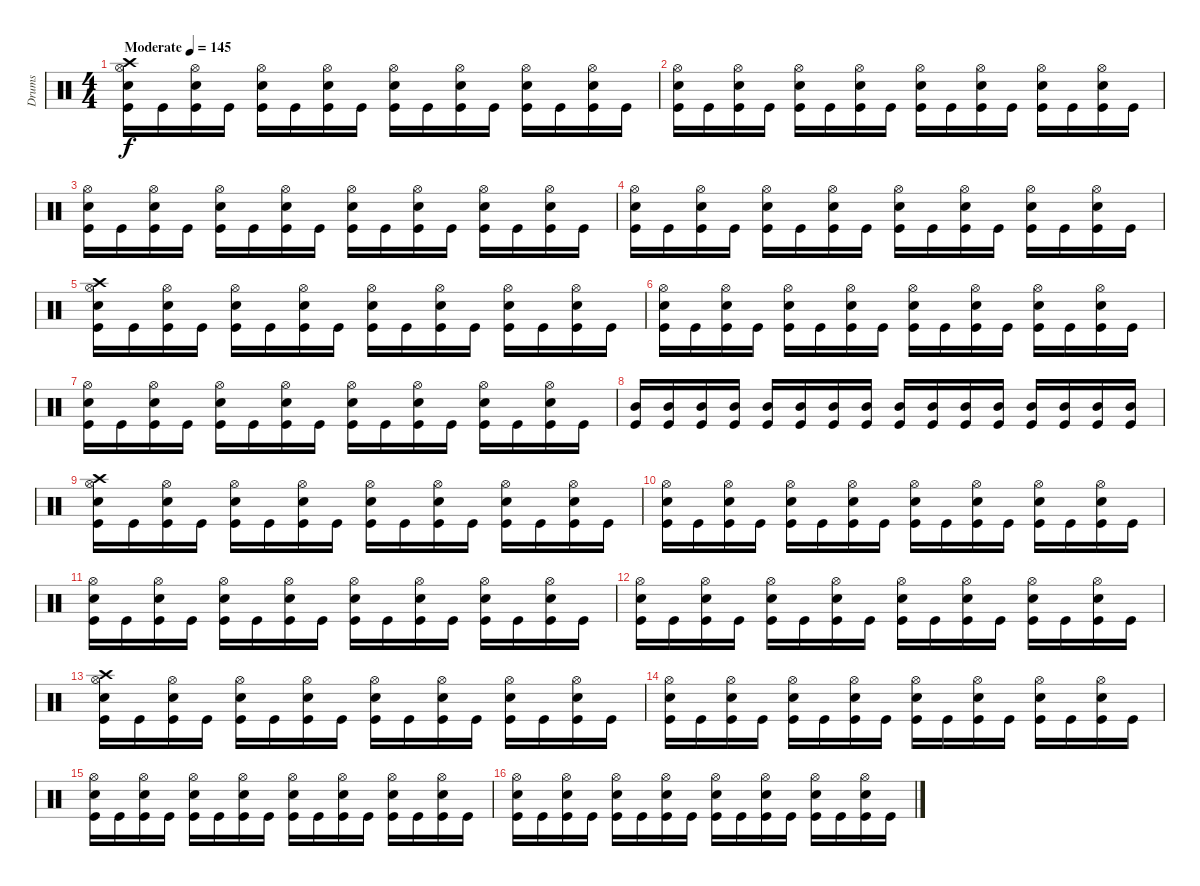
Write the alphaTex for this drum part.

\track ("Drums" "Drums") {instrument percussion}
\staff {score}
\articulation defaults
\ts (4 4)
\tempo (145 "Moderate")
\clef neutral
\ks c
("Crash high (hit)" "Hi-Hat (open)" "Electric Snare (hit)" "Kick (hit)").16{dy f} "Kick (hit)".16 ("Hi-Hat (open)" "Electric Snare (hit)" "Kick (hit)").16 "Kick (hit)".16 ("Hi-Hat (open)" "Electric Snare (hit)" "Kick (hit)").16 "Kick (hit)".16 ("Hi-Hat (open)" "Electric Snare (hit)" "Kick (hit)").16 "Kick (hit)".16 ("Hi-Hat (open)" "Electric Snare (hit)" "Kick (hit)").16 "Kick (hit)".16 ("Hi-Hat (open)" "Electric Snare (hit)" "Kick (hit)").16 "Kick (hit)".16 ("Hi-Hat (open)" "Electric Snare (hit)" "Kick (hit)").16 "Kick (hit)".16 ("Hi-Hat (open)" "Electric Snare (hit)" "Kick (hit)").16 "Kick (hit)".16 |
("Hi-Hat (open)" "Electric Snare (hit)" "Kick (hit)").16 "Kick (hit)".16 ("Hi-Hat (open)" "Electric Snare (hit)" "Kick (hit)").16 "Kick (hit)".16 ("Hi-Hat (open)" "Electric Snare (hit)" "Kick (hit)").16 "Kick (hit)".16 ("Hi-Hat (open)" "Electric Snare (hit)" "Kick (hit)").16 "Kick (hit)".16 ("Hi-Hat (open)" "Electric Snare (hit)" "Kick (hit)").16 "Kick (hit)".16 ("Hi-Hat (open)" "Electric Snare (hit)" "Kick (hit)").16 "Kick (hit)".16 ("Hi-Hat (open)" "Electric Snare (hit)" "Kick (hit)").16 "Kick (hit)".16 ("Hi-Hat (open)" "Electric Snare (hit)" "Kick (hit)").16 "Kick (hit)".16 |
("Hi-Hat (open)" "Electric Snare (hit)" "Kick (hit)").16 "Kick (hit)".16 ("Hi-Hat (open)" "Electric Snare (hit)" "Kick (hit)").16 "Kick (hit)".16 ("Hi-Hat (open)" "Electric Snare (hit)" "Kick (hit)").16 "Kick (hit)".16 ("Hi-Hat (open)" "Electric Snare (hit)" "Kick (hit)").16 "Kick (hit)".16 ("Hi-Hat (open)" "Electric Snare (hit)" "Kick (hit)").16 "Kick (hit)".16 ("Hi-Hat (open)" "Electric Snare (hit)" "Kick (hit)").16 "Kick (hit)".16 ("Hi-Hat (open)" "Electric Snare (hit)" "Kick (hit)").16 "Kick (hit)".16 ("Hi-Hat (open)" "Electric Snare (hit)" "Kick (hit)").16 "Kick (hit)".16 |
("Hi-Hat (open)" "Electric Snare (hit)" "Kick (hit)").16 "Kick (hit)".16 ("Hi-Hat (open)" "Electric Snare (hit)" "Kick (hit)").16 "Kick (hit)".16 ("Hi-Hat (open)" "Electric Snare (hit)" "Kick (hit)").16 "Kick (hit)".16 ("Hi-Hat (open)" "Electric Snare (hit)" "Kick (hit)").16 "Kick (hit)".16 ("Hi-Hat (open)" "Electric Snare (hit)" "Kick (hit)").16 "Kick (hit)".16 ("Hi-Hat (open)" "Electric Snare (hit)" "Kick (hit)").16 "Kick (hit)".16 ("Hi-Hat (open)" "Electric Snare (hit)" "Kick (hit)").16 "Kick (hit)".16 ("Hi-Hat (open)" "Electric Snare (hit)" "Kick (hit)").16 "Kick (hit)".16 |
("Crash high (hit)" "Hi-Hat (open)" "Electric Snare (hit)" "Kick (hit)").16 "Kick (hit)".16 ("Hi-Hat (open)" "Electric Snare (hit)" "Kick (hit)").16 "Kick (hit)".16 ("Hi-Hat (open)" "Electric Snare (hit)" "Kick (hit)").16 "Kick (hit)".16 ("Hi-Hat (open)" "Electric Snare (hit)" "Kick (hit)").16 "Kick (hit)".16 ("Hi-Hat (open)" "Electric Snare (hit)" "Kick (hit)").16 "Kick (hit)".16 ("Hi-Hat (open)" "Electric Snare (hit)" "Kick (hit)").16 "Kick (hit)".16 ("Hi-Hat (open)" "Electric Snare (hit)" "Kick (hit)").16 "Kick (hit)".16 ("Hi-Hat (open)" "Electric Snare (hit)" "Kick (hit)").16 "Kick (hit)".16 |
("Hi-Hat (open)" "Electric Snare (hit)" "Kick (hit)").16 "Kick (hit)".16 ("Hi-Hat (open)" "Electric Snare (hit)" "Kick (hit)").16 "Kick (hit)".16 ("Hi-Hat (open)" "Electric Snare (hit)" "Kick (hit)").16 "Kick (hit)".16 ("Hi-Hat (open)" "Electric Snare (hit)" "Kick (hit)").16 "Kick (hit)".16 ("Hi-Hat (open)" "Electric Snare (hit)" "Kick (hit)").16 "Kick (hit)".16 ("Hi-Hat (open)" "Electric Snare (hit)" "Kick (hit)").16 "Kick (hit)".16 ("Hi-Hat (open)" "Electric Snare (hit)" "Kick (hit)").16 "Kick (hit)".16 ("Hi-Hat (open)" "Electric Snare (hit)" "Kick (hit)").16 "Kick (hit)".16 |
("Hi-Hat (open)" "Electric Snare (hit)" "Kick (hit)").16 "Kick (hit)".16 ("Hi-Hat (open)" "Electric Snare (hit)" "Kick (hit)").16 "Kick (hit)".16 ("Hi-Hat (open)" "Electric Snare (hit)" "Kick (hit)").16 "Kick (hit)".16 ("Hi-Hat (open)" "Electric Snare (hit)" "Kick (hit)").16 "Kick (hit)".16 ("Hi-Hat (open)" "Electric Snare (hit)" "Kick (hit)").16 "Kick (hit)".16 ("Hi-Hat (open)" "Electric Snare (hit)" "Kick (hit)").16 "Kick (hit)".16 ("Hi-Hat (open)" "Electric Snare (hit)" "Kick (hit)").16 "Kick (hit)".16 ("Hi-Hat (open)" "Electric Snare (hit)" "Kick (hit)").16 "Kick (hit)".16 |
("Mid Tom (hit)" "Kick (hit)").16 ("Mid Tom (hit)" "Kick (hit)").16 ("Mid Tom (hit)" "Kick (hit)").16 ("Mid Tom (hit)" "Kick (hit)").16 ("Mid Tom (hit)" "Kick (hit)").16 ("Mid Tom (hit)" "Kick (hit)").16 ("Mid Tom (hit)" "Kick (hit)").16 ("Mid Tom (hit)" "Kick (hit)").16 ("Mid Tom (hit)" "Kick (hit)").16 ("Mid Tom (hit)" "Kick (hit)").16 ("Mid Tom (hit)" "Kick (hit)").16 ("Mid Tom (hit)" "Kick (hit)").16 ("Mid Tom (hit)" "Kick (hit)").16 ("Mid Tom (hit)" "Kick (hit)").16 ("Mid Tom (hit)" "Kick (hit)").16 ("Mid Tom (hit)" "Kick (hit)").16 |
("Crash high (hit)" "Hi-Hat (open)" "Electric Snare (hit)" "Kick (hit)").16 "Kick (hit)".16 ("Hi-Hat (open)" "Electric Snare (hit)" "Kick (hit)").16 "Kick (hit)".16 ("Hi-Hat (open)" "Electric Snare (hit)" "Kick (hit)").16 "Kick (hit)".16 ("Hi-Hat (open)" "Electric Snare (hit)" "Kick (hit)").16 "Kick (hit)".16 ("Hi-Hat (open)" "Electric Snare (hit)" "Kick (hit)").16 "Kick (hit)".16 ("Hi-Hat (open)" "Electric Snare (hit)" "Kick (hit)").16 "Kick (hit)".16 ("Hi-Hat (open)" "Electric Snare (hit)" "Kick (hit)").16 "Kick (hit)".16 ("Hi-Hat (open)" "Electric Snare (hit)" "Kick (hit)").16 "Kick (hit)".16 |
("Hi-Hat (open)" "Electric Snare (hit)" "Kick (hit)").16 "Kick (hit)".16 ("Hi-Hat (open)" "Electric Snare (hit)" "Kick (hit)").16 "Kick (hit)".16 ("Hi-Hat (open)" "Electric Snare (hit)" "Kick (hit)").16 "Kick (hit)".16 ("Hi-Hat (open)" "Electric Snare (hit)" "Kick (hit)").16 "Kick (hit)".16 ("Hi-Hat (open)" "Electric Snare (hit)" "Kick (hit)").16 "Kick (hit)".16 ("Hi-Hat (open)" "Electric Snare (hit)" "Kick (hit)").16 "Kick (hit)".16 ("Hi-Hat (open)" "Electric Snare (hit)" "Kick (hit)").16 "Kick (hit)".16 ("Hi-Hat (open)" "Electric Snare (hit)" "Kick (hit)").16 "Kick (hit)".16 |
("Hi-Hat (open)" "Electric Snare (hit)" "Kick (hit)").16 "Kick (hit)".16 ("Hi-Hat (open)" "Electric Snare (hit)" "Kick (hit)").16 "Kick (hit)".16 ("Hi-Hat (open)" "Electric Snare (hit)" "Kick (hit)").16 "Kick (hit)".16 ("Hi-Hat (open)" "Electric Snare (hit)" "Kick (hit)").16 "Kick (hit)".16 ("Hi-Hat (open)" "Electric Snare (hit)" "Kick (hit)").16 "Kick (hit)".16 ("Hi-Hat (open)" "Electric Snare (hit)" "Kick (hit)").16 "Kick (hit)".16 ("Hi-Hat (open)" "Electric Snare (hit)" "Kick (hit)").16 "Kick (hit)".16 ("Hi-Hat (open)" "Electric Snare (hit)" "Kick (hit)").16 "Kick (hit)".16 |
("Hi-Hat (open)" "Electric Snare (hit)" "Kick (hit)").16 "Kick (hit)".16 ("Hi-Hat (open)" "Electric Snare (hit)" "Kick (hit)").16 "Kick (hit)".16 ("Hi-Hat (open)" "Electric Snare (hit)" "Kick (hit)").16 "Kick (hit)".16 ("Hi-Hat (open)" "Electric Snare (hit)" "Kick (hit)").16 "Kick (hit)".16 ("Hi-Hat (open)" "Electric Snare (hit)" "Kick (hit)").16 "Kick (hit)".16 ("Hi-Hat (open)" "Electric Snare (hit)" "Kick (hit)").16 "Kick (hit)".16 ("Hi-Hat (open)" "Electric Snare (hit)" "Kick (hit)").16 "Kick (hit)".16 ("Hi-Hat (open)" "Electric Snare (hit)" "Kick (hit)").16 "Kick (hit)".16 |
("Crash high (hit)" "Hi-Hat (open)" "Electric Snare (hit)" "Kick (hit)").16 "Kick (hit)".16 ("Hi-Hat (open)" "Electric Snare (hit)" "Kick (hit)").16 "Kick (hit)".16 ("Hi-Hat (open)" "Electric Snare (hit)" "Kick (hit)").16 "Kick (hit)".16 ("Hi-Hat (open)" "Electric Snare (hit)" "Kick (hit)").16 "Kick (hit)".16 ("Hi-Hat (open)" "Electric Snare (hit)" "Kick (hit)").16 "Kick (hit)".16 ("Hi-Hat (open)" "Electric Snare (hit)" "Kick (hit)").16 "Kick (hit)".16 ("Hi-Hat (open)" "Electric Snare (hit)" "Kick (hit)").16 "Kick (hit)".16 ("Hi-Hat (open)" "Electric Snare (hit)" "Kick (hit)").16 "Kick (hit)".16 |
("Hi-Hat (open)" "Electric Snare (hit)" "Kick (hit)").16 "Kick (hit)".16 ("Hi-Hat (open)" "Electric Snare (hit)" "Kick (hit)").16 "Kick (hit)".16 ("Hi-Hat (open)" "Electric Snare (hit)" "Kick (hit)").16 "Kick (hit)".16 ("Hi-Hat (open)" "Electric Snare (hit)" "Kick (hit)").16 "Kick (hit)".16 ("Hi-Hat (open)" "Electric Snare (hit)" "Kick (hit)").16 "Kick (hit)".16 ("Hi-Hat (open)" "Electric Snare (hit)" "Kick (hit)").16 "Kick (hit)".16 ("Hi-Hat (open)" "Electric Snare (hit)" "Kick (hit)").16 "Kick (hit)".16 ("Hi-Hat (open)" "Electric Snare (hit)" "Kick (hit)").16 "Kick (hit)".16 |
("Hi-Hat (open)" "Electric Snare (hit)" "Kick (hit)").16 "Kick (hit)".16 ("Hi-Hat (open)" "Electric Snare (hit)" "Kick (hit)").16 "Kick (hit)".16 ("Hi-Hat (open)" "Electric Snare (hit)" "Kick (hit)").16 "Kick (hit)".16 ("Hi-Hat (open)" "Electric Snare (hit)" "Kick (hit)").16 "Kick (hit)".16 ("Hi-Hat (open)" "Electric Snare (hit)" "Kick (hit)").16 "Kick (hit)".16 ("Hi-Hat (open)" "Electric Snare (hit)" "Kick (hit)").16 "Kick (hit)".16 ("Hi-Hat (open)" "Electric Snare (hit)" "Kick (hit)").16 "Kick (hit)".16 ("Hi-Hat (open)" "Electric Snare (hit)" "Kick (hit)").16 "Kick (hit)".16 |
("Hi-Hat (open)" "Electric Snare (hit)" "Kick (hit)").16 "Kick (hit)".16 ("Hi-Hat (open)" "Electric Snare (hit)" "Kick (hit)").16 "Kick (hit)".16 ("Hi-Hat (open)" "Electric Snare (hit)" "Kick (hit)").16 "Kick (hit)".16 ("Hi-Hat (open)" "Electric Snare (hit)" "Kick (hit)").16 "Kick (hit)".16 ("Hi-Hat (open)" "Electric Snare (hit)" "Kick (hit)").16 "Kick (hit)".16 ("Hi-Hat (open)" "Electric Snare (hit)" "Kick (hit)").16 "Kick (hit)".16 ("Hi-Hat (open)" "Electric Snare (hit)" "Kick (hit)").16 "Kick (hit)".16 ("Hi-Hat (open)" "Electric Snare (hit)" "Kick (hit)").16 "Kick (hit)".16
